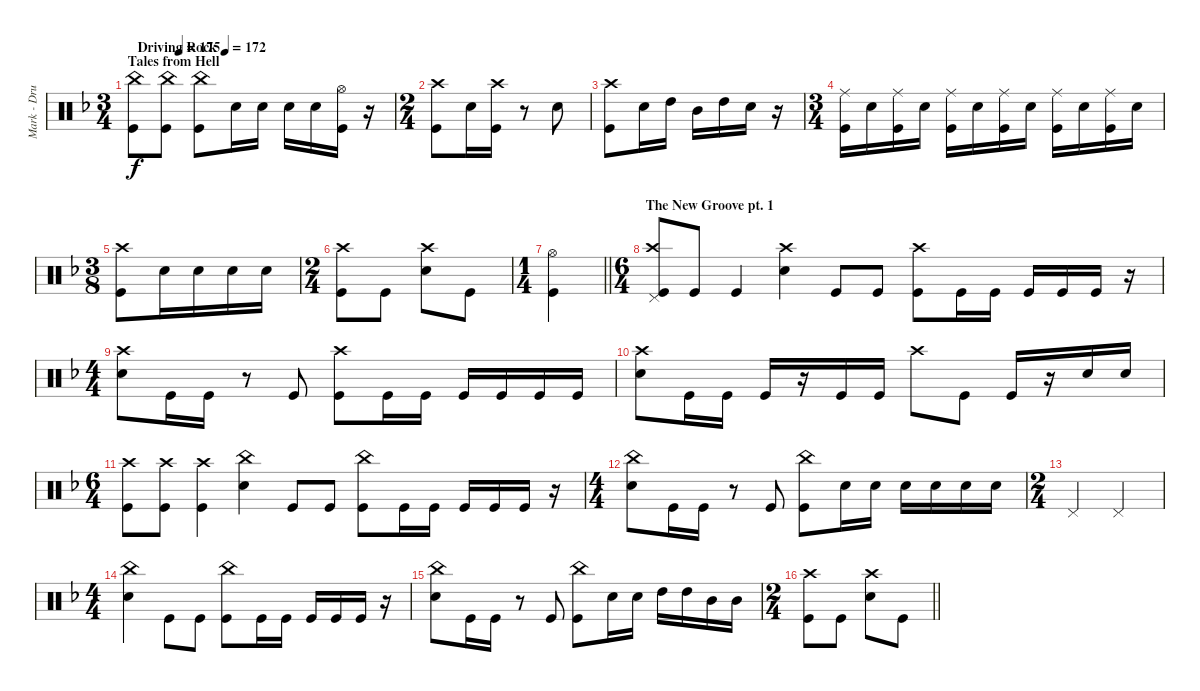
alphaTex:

\track ("Mark - Drums" "Mark - Dru") {instrument percussion}
\staff {score}
\articulation defaults
\ts (3 4)
\section ("" "Tales from Hell")
\tempo (172 "Driving Rock")
\tempo (175 0.16666666666666666)
\tempo (172 "Driving Rock")
\clef neutral
\ks dminor
("China (hit)" "Kick (hit)").8{dy f} ("Kick (hit)" "China (hit)").8 ("Kick (hit)" "China (hit)").8 "Snare (hit) 2".16 "Snare (hit) 2".16 "Snare (hit) 2".16 "Snare (hit) 2".16 ("Kick (hit)" "Hi-Hat (open)").16 r.16 |
\ts (2 4)
("Kick (hit)" "Crash high (hit)").8 "Snare (hit) 2".16 ("Kick (hit)" "Crash high (hit)").16 r.8 "Snare (hit) 2".8 |
("Kick (hit)" "Crash high (hit)").8 "Snare (hit) 2".16 "High Tom (hit)".16 "Mid Tom (hit)".16 "High Tom (hit)".16 "Snare (hit) 2".16 r.16 |
\ts (3 4)
("Kick (hit)" "Ride (middle)").16 "Snare (hit) 2".16 ("Kick (hit)" "Ride (middle)").16 "Snare (hit) 2".16 ("Ride (middle)" "Kick (hit)").16 "Snare (hit) 2".16 ("Kick (hit)" "Ride (middle)").16 "Snare (hit) 2".16 ("Kick (hit)" "Ride (middle)").16 "Snare (hit) 2".16 ("Kick (hit)" "Ride (middle)").16 "Snare (hit) 2".16 |
\ts (3 8)
("Kick (hit)" "Crash high (hit)").8 "Snare (hit) 2".16 "Snare (hit) 2".16 "Snare (hit) 2".16 "Snare (hit) 2".16 |
\ts (2 4)
("Kick (hit)" "Crash high (hit)").8 "Kick (hit)".8 ("Snare (hit) 2" "Crash high (hit)").8 "Kick (hit)".8 |
\ts (1 4)
\barLineRight lightlight
("Kick (hit)" "Hi-Hat (open)").4 |
\ts (6 4)
\section ("" "The New Groove pt. 1")
("Kick (hit)" "Crash high (hit)" "Pedal Hi-Hat (hit)").8 "Kick (hit)".8 "Kick (hit)".4 ("Snare (hit) 2" "Crash high (hit)").4 "Kick (hit)".8 "Kick (hit)".8 ("Kick (hit)" "Crash high (hit)").8 "Kick (hit)".16 "Kick (hit)".16 "Kick (hit)".16 "Kick (hit)".16 "Kick (hit)".16 r.16 |
\ts (4 4)
("Snare (hit) 2" "Crash high (hit)").8 "Kick (hit)".16 "Kick (hit)".16 r.8 "Kick (hit)".8 ("Kick (hit)" "Crash high (hit)").8 "Kick (hit)".16 "Kick (hit)".16 "Kick (hit)".16 "Kick (hit)".16 "Kick (hit)".16 "Kick (hit)".16 |
("Snare (hit) 2" "Crash high (hit)").8 "Kick (hit)".16 "Kick (hit)".16 "Kick (hit)".16 r.16 "Kick (hit)".16 "Kick (hit)".16 "Crash high (hit)".8 "Kick (hit)".8 "Kick (hit)".16 r.16 "Snare (hit) 2".16 "Snare (hit) 2".16 |
\ts (6 4)
("Kick (hit)" "Crash high (hit)").8 ("Kick (hit)" "Crash high (hit)").8 ("Kick (hit)" "Crash high (hit)").4 ("Snare (hit) 2" "China (hit)").4 "Kick (hit)".8 "Kick (hit)".8 ("Kick (hit)" "China (hit)").8 "Kick (hit)".16 "Kick (hit)".16 "Kick (hit)".16 "Kick (hit)".16 "Kick (hit)".16 r.16 |
\ts (4 4)
("Snare (hit) 2" "China (hit)").8 "Kick (hit)".16 "Kick (hit)".16 r.8 "Kick (hit)".8 ("Kick (hit)" "China (hit)").8 "Snare (hit) 2".16 "Snare (hit) 2".16 "Snare (hit) 2".16 "Snare (hit) 2".16 "Snare (hit) 2".16 "Snare (hit) 2".16 |
\ts (2 4)
"Pedal Hi-Hat (hit)".4 "Pedal Hi-Hat (hit)".4 |
\ts (4 4)
("Snare (hit) 2" "China (hit)").4{beam merge} "Kick (hit)".8 "Kick (hit)".8 ("Kick (hit)" "China (hit)").8 "Kick (hit)".16{beam merge} "Kick (hit)".16 "Kick (hit)".16 "Kick (hit)".16 "Kick (hit)".16 r.16 |
("Snare (hit) 2" "China (hit)").8 "Kick (hit)".16 "Kick (hit)".16 r.8 "Kick (hit)".8 ("Kick (hit)" "China (hit)").8 "Snare (hit) 2".16 "Snare (hit) 2".16 "High Tom (hit)".16 "High Tom (hit)".16 "Mid Tom (hit)".16 "Mid Tom (hit)".16 |
\ts (2 4)
\barLineRight lightlight
("Kick (hit)" "Crash high (hit)").8 "Kick (hit)".8 ("Snare (hit) 2" "Crash high (hit)").8 "Kick (hit)".8
